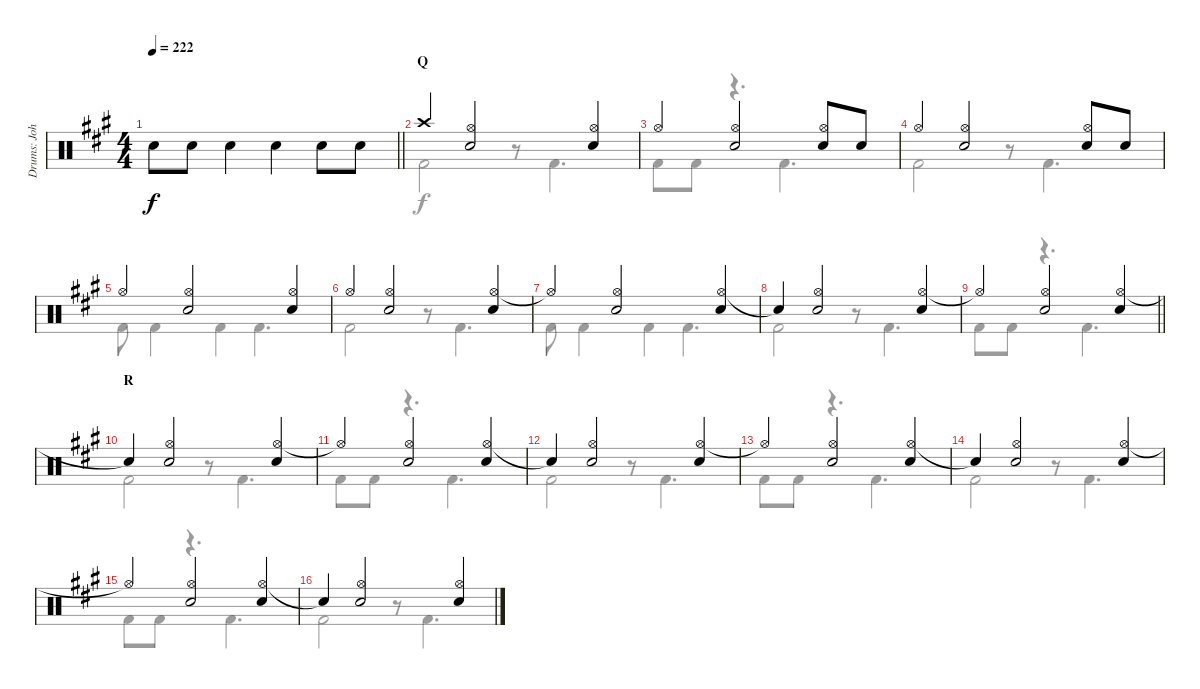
\track ("Drums: John" "Drums: Joh") {instrument percussion}
\staff {score}
\articulation defaults
\voice
\ts (4 4)
\tempo 222
\clef neutral
\barLineRight lightlight
\ks a "Electric Snare (hit)".8{dy f} "Electric Snare (hit)".8{beam merge} "Electric Snare (hit)".4 "Electric Snare (hit)".4 "Electric Snare (hit)".8 "Electric Snare (hit)".8
|
\section ("" "Q")
"Crash high (hit)".4 ("Hi-Hat (open)" "Electric Snare (hit)").2 ("Hi-Hat (open)" "Electric Snare (hit)").4 |
"Hi-Hat (open)".4 ("Hi-Hat (open)" "Electric Snare (hit)").2 ("Hi-Hat (open)" "Electric Snare (hit)").8 "Electric Snare (hit)".8 |
"Hi-Hat (open)".4 ("Hi-Hat (open)" "Electric Snare (hit)").2 ("Hi-Hat (open)" "Electric Snare (hit)").8 "Electric Snare (hit)".8 |
"Hi-Hat (open)".4 ("Hi-Hat (open)" "Electric Snare (hit)").2 ("Hi-Hat (open)" "Electric Snare (hit)").4 |
"Hi-Hat (open)".4 ("Hi-Hat (open)" "Electric Snare (hit)").2 ("Hi-Hat (open)" "Electric Snare (hit)").4 |
"Hi-Hat (open)"{t}.4 ("Hi-Hat (open)" "Electric Snare (hit)").2 ("Hi-Hat (open)" "Electric Snare (hit)").4 |
"Snare (hit)"{t}.4 ("Hi-Hat (open)" "Electric Snare (hit)").2 ("Hi-Hat (open)" "Electric Snare (hit)").4 |
\barLineRight lightlight "Hi-Hat (open)"{t}.4
("Hi-Hat (open)" "Electric Snare (hit)").2 ("Hi-Hat (open)" "Electric Snare (hit)").4 |
\section ("" "R")
"Snare (hit)"{t}.4 ("Hi-Hat (open)" "Electric Snare (hit)").2 ("Hi-Hat (open)" "Electric Snare (hit)").4 |
"Hi-Hat (open)"{t}.4 ("Hi-Hat (open)" "Electric Snare (hit)").2 ("Hi-Hat (open)" "Electric Snare (hit)").4 |
"Snare (hit)"{t}.4 ("Hi-Hat (open)" "Electric Snare (hit)").2 ("Hi-Hat (open)" "Electric Snare (hit)").4 |
"Hi-Hat (open)"{t}.4 ("Hi-Hat (open)" "Electric Snare (hit)").2 ("Hi-Hat (open)" "Electric Snare (hit)").4 |
"Snare (hit)"{t}.4 ("Hi-Hat (open)" "Electric Snare (hit)").2 ("Hi-Hat (open)" "Electric Snare (hit)").4 |
"Hi-Hat (open)"{t}.4 ("Hi-Hat (open)" "Electric Snare (hit)").2 ("Hi-Hat (open)" "Electric Snare (hit)").4 |
"Snare (hit)"{t}.4 ("Hi-Hat (open)" "Electric Snare (hit)").2 ("Hi-Hat (open)" "Electric Snare (hit)").4
\voice
\clef neutral
\ottava regular
\simile none
\barLineRight lightlight
\ks a
|
"Kick (hit) 2".2 r.8 "Kick (hit) 2".4{d} |
"Kick (hit) 2".8 "Kick (hit) 2".8 r.4{d} "Kick (hit) 2".4{d} |
"Kick (hit) 2".2 r.8 "Kick (hit) 2".4{d} |
"Kick (hit) 2".8 "Kick (hit) 2".4 "Kick (hit) 2".4 "Kick (hit) 2".4{d} |
"Kick (hit) 2".2 r.8 "Kick (hit) 2".4{d} |
"Kick (hit) 2".8 "Kick (hit) 2".4 "Kick (hit) 2".4 "Kick (hit) 2".4{d} |
"Kick (hit) 2".2 r.8 "Kick (hit) 2".4{d} |
\barLineRight lightlight "Kick (hit) 2".8 "Kick (hit) 2".8
r.4{d} "Kick (hit) 2".4{d} |
"Kick (hit) 2".2 r.8 "Kick (hit) 2".4{d} |
"Kick (hit) 2".8 "Kick (hit) 2".8 r.4{d} "Kick (hit) 2".4{d} |
"Kick (hit) 2".2 r.8 "Kick (hit) 2".4{d} |
"Kick (hit) 2".8 "Kick (hit) 2".8 r.4{d} "Kick (hit) 2".4{d} |
"Kick (hit) 2".2 r.8 "Kick (hit) 2".4{d} |
"Kick (hit) 2".8 "Kick (hit) 2".8 r.4{d} "Kick (hit) 2".4{d} |
"Kick (hit) 2".2 r.8 "Kick (hit) 2".4{d}
